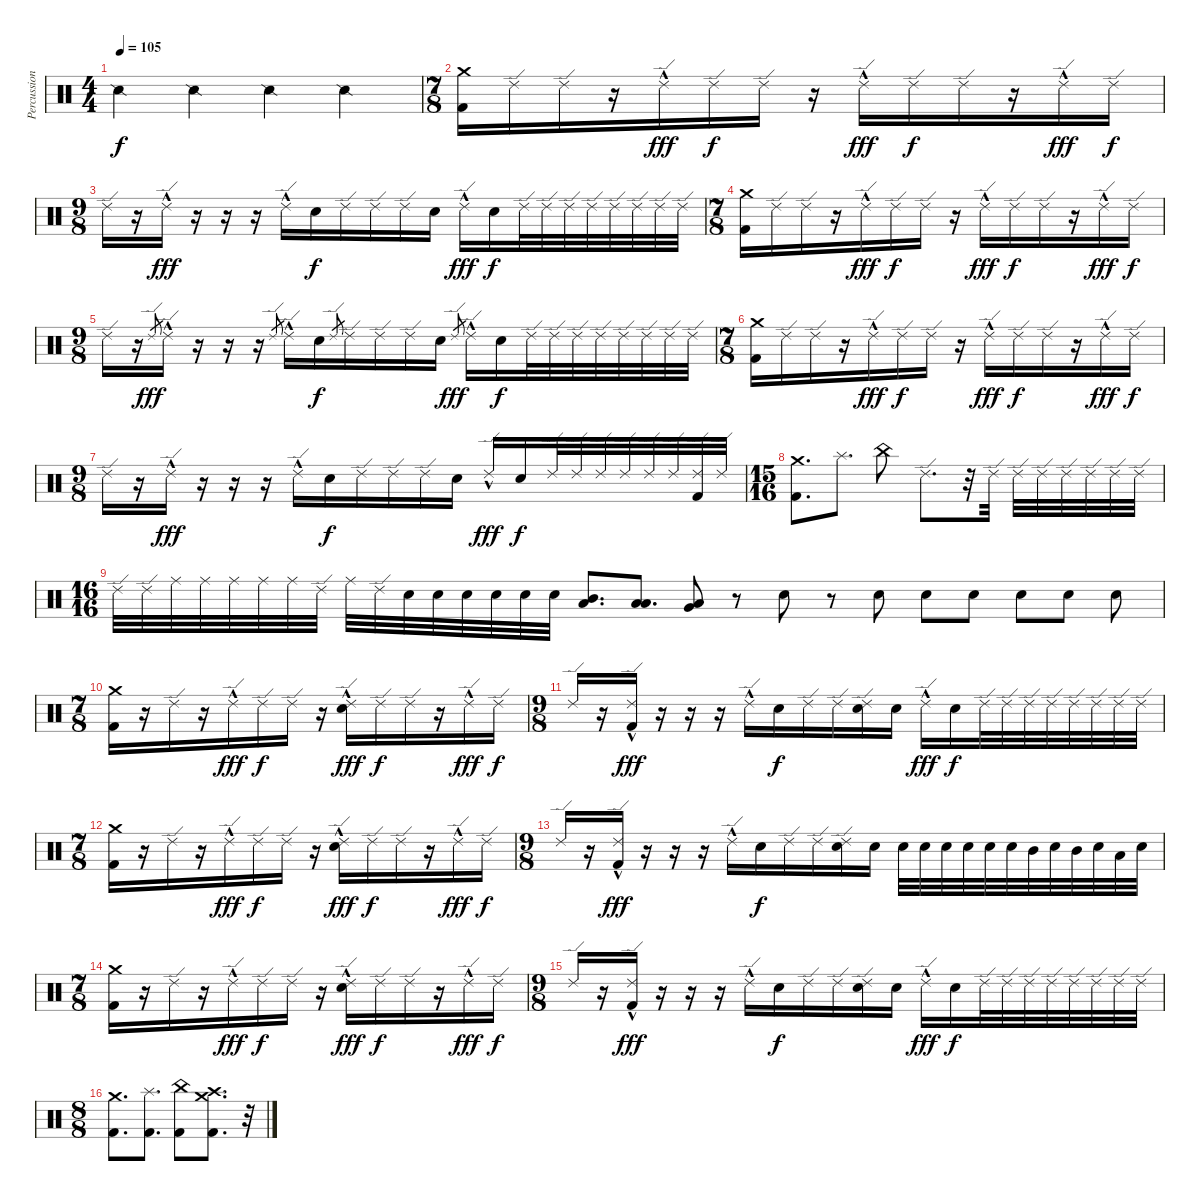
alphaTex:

\track ("Percussion" "Percussion") {instrument percussion}
\staff {score}
\articulation defaults
\ts (4 4)
\tempo 105
\clef neutral
\ks c "Snare (side stick) 2".4{dy f} "Snare (side stick) 2".4 "Snare (side stick) 2".4 "Snare (side stick) 2".4
|
\ts (7 8)
("Kick (hit) 2" "Crash medium (hit)").16 "Ride (edge) 2".16 "Ride (edge) 2".16 r.16 "Ride (edge) 2"{hac}.16{dy fff} "Ride (edge) 2".16{dy f} "Ride (edge) 2".16 r.16 "Ride (edge) 2"{hac}.16{dy fff} "Ride (edge) 2".16{dy f} "Ride (edge) 2".16 r.16 "Ride (edge) 2"{hac}.16{dy fff} "Ride (edge) 2".16{dy f} |
\ts (9 8)
"Ride (edge) 2".16 r.16 "Ride (edge) 2"{hac}.16{dy fff} r.16 r.16 r.16 "Ride (edge) 2"{hac}.16 "Snare (hit)".16{dy f} "Ride (edge) 2".16 "Ride (edge) 2".16 "Ride (edge) 2".16 "Snare (hit)".16 "Ride (edge) 2"{hac}.16{dy fff} "Snare (hit)".16{dy f} "Ride (edge) 2".32 "Ride (edge) 2".32 "Ride (edge) 2".32 "Ride (edge) 2".32 "Ride (edge) 2".32 "Ride (edge) 2".32 "Ride (edge) 2".32 "Ride (edge) 2".32 |
\ts (7 8)
("Kick (hit) 2" "Crash medium (hit)").16 "Ride (edge) 2".16 "Ride (edge) 2".16 r.16 "Ride (edge) 2"{hac}.16{dy fff} "Ride (edge) 2".16{dy f} "Ride (edge) 2".16 r.16 "Ride (edge) 2"{hac}.16{dy fff} "Ride (edge) 2".16{dy f} "Ride (edge) 2".16 r.16 "Ride (edge) 2"{hac}.16{dy fff} "Ride (edge) 2".16{dy f} |
\ts (9 8)
"Ride (edge) 2".16 r.16 "Ride (edge) 2".8{gr dy fff} "Ride (edge) 2"{hac}.16 r.16 r.16 r.16 "Ride (edge) 2".8{gr} "Ride (edge) 2"{hac}.16 "Snare (hit)".16{dy f} "Ride (edge) 2".8{gr} "Ride (edge) 2".16 "Ride (edge) 2".16 "Ride (edge) 2".16 "Snare (hit)".16 "Ride (edge) 2".8{gr dy fff} "Ride (edge) 2"{hac}.16 "Snare (hit)".16{dy f} "Ride (edge) 2".32 "Ride (edge) 2".32 "Ride (edge) 2".32 "Ride (edge) 2".32 "Ride (edge) 2".32 "Ride (edge) 2".32 "Ride (edge) 2".32 "Ride (edge) 2".32 |
\ts (7 8)
("Kick (hit) 2" "Crash medium (hit)").16 "Ride (edge) 2".16 "Ride (edge) 2".16 r.16 "Ride (edge) 2"{hac}.16{dy fff} "Ride (edge) 2".16{dy f} "Ride (edge) 2".16 r.16 "Ride (edge) 2"{hac}.16{dy fff} "Ride (edge) 2".16{dy f} "Ride (edge) 2".16 r.16 "Ride (edge) 2"{hac}.16{dy fff} "Ride (edge) 2".16{dy f} |
\ts (9 8)
"Ride (edge) 2".16 r.16 "Ride (edge) 2"{hac}.16{dy fff} r.16 r.16 r.16 "Ride (edge) 2"{hac}.16 "Snare (hit)".16{dy f} "Ride (edge) 2".16 "Ride (edge) 2".16 "Ride (edge) 2".16 "Snare (hit)".16 "Ride (edge) 2"{hac}.16{dy fff} "Snare (hit)".16{dy f} "Ride (edge) 2".32 "Ride (edge) 2".32 "Ride (edge) 2".32 "Ride (edge) 2".32 "Ride (edge) 2".32 "Ride (edge) 2".32 ("Ride (edge) 2" "Kick (hit) 2").32 "Ride (edge) 2".32 |
\ts (15 16)
("Crash medium (hit)" "Kick (hit) 2").8{d} "Splash (hit)".8{d} "China (hit)".8 "Ride (edge) 2".8{d} r.32 "Ride (edge) 2".32 "Ride (edge) 2".32 "Ride (edge) 2".32 "Ride (edge) 2".32 "Ride (edge) 2".32 "Ride (edge) 2".32 "Ride (edge) 2".32 |
\ts (16 16)
"Ride (edge) 2".32 "Ride (edge) 2".32 "Ride (middle)".32 "Ride (middle)".32 "Ride (middle)".32 "Ride (middle)".32 "Ride (middle)".32 "Ride (edge) 2".32 "Ride (middle)".32 "Ride (edge) 2".32 "Snare (hit)".32 "Snare (hit)".32 "Snare (hit)".32 "Snare (hit)".32 "Snare (hit)".32 "Snare (hit)".32 ("Low Tom (hit)" "Mid Tom (hit)").8{d} ("Low Tom (hit)" "Low Tom (hit)").8{d} ("Low Tom (hit)" "Very Low Tom (hit)").8 r.8 "Snare (hit)".8 r.8 "Snare (hit)".8 "Snare (hit)".8 "Snare (hit)".8 "Snare (hit)".8 "Snare (hit)".8 "Snare (hit)".8 |
\ts (7 8)
("Kick (hit) 2" "Crash medium (hit)").16 r.16 "Ride (edge) 2".16 r.16 "Ride (edge) 2"{hac}.16{dy fff} "Ride (edge) 2".16{dy f} "Ride (edge) 2".16 r.16 ("Ride (edge) 2"{hac} "Electric Snare (hit)").16{dy fff} "Ride (edge) 2".16{dy f} "Ride (edge) 2".16 r.16 "Ride (edge) 2"{hac}.16{dy fff} "Ride (edge) 2".16{dy f} |
\ts (9 8)
"Ride (edge) 2".16 r.16 ("Ride (edge) 2"{hac} "Kick (hit) 2").16{dy fff} r.16 r.16 r.16 "Ride (edge) 2"{hac}.16 "Snare (hit)".16{dy f} "Ride (edge) 2".16 "Ride (edge) 2".16 ("Ride (edge) 2" "Electric Snare (hit)").16 "Snare (hit)".16 "Ride (edge) 2"{hac}.16{dy fff} "Snare (hit)".16{dy f} "Ride (edge) 2".32 "Ride (edge) 2".32 "Ride (edge) 2".32 "Ride (edge) 2".32 "Ride (edge) 2".32 "Ride (edge) 2".32 "Ride (edge) 2".32 "Ride (edge) 2".32 |
\ts (7 8)
("Kick (hit) 2" "Crash medium (hit)").16 r.16 "Ride (edge) 2".16 r.16 "Ride (edge) 2"{hac}.16{dy fff} "Ride (edge) 2".16{dy f} "Ride (edge) 2".16 r.16 ("Ride (edge) 2"{hac} "Electric Snare (hit)").16{dy fff} "Ride (edge) 2".16{dy f} "Ride (edge) 2".16 r.16 "Ride (edge) 2"{hac}.16{dy fff} "Ride (edge) 2".16{dy f} |
\ts (9 8)
"Ride (edge) 2".16 r.16 ("Ride (edge) 2"{hac} "Kick (hit) 2").16{dy fff} r.16 r.16 r.16 "Ride (edge) 2"{hac}.16 "Snare (hit)".16{dy f} "Ride (edge) 2".16 "Ride (edge) 2".16 ("Ride (edge) 2" "Electric Snare (hit)").16 "Snare (hit)".16 "Electric Snare (hit)".32 "Electric Snare (hit)".32 "Electric Snare (hit)".32 "Electric Snare (hit)".32 "Electric Snare (hit)".32 "Snare (hit)".32 "Mid Tom (hit)".32 "Snare (hit)".32 "Mid Tom (hit)".32 "Snare (hit)".32 "Low Tom (hit)".32 "Snare (hit)".32 |
\ts (7 8)
("Kick (hit) 2" "Crash medium (hit)").16 r.16 "Ride (edge) 2".16 r.16 "Ride (edge) 2"{hac}.16{dy fff} "Ride (edge) 2".16{dy f} "Ride (edge) 2".16 r.16 ("Ride (edge) 2"{hac} "Electric Snare (hit)").16{dy fff} "Ride (edge) 2".16{dy f} "Ride (edge) 2".16 r.16 "Ride (edge) 2"{hac}.16{dy fff} "Ride (edge) 2".16{dy f} |
\ts (9 8)
"Ride (edge) 2".16 r.16 ("Ride (edge) 2"{hac} "Kick (hit) 2").16{dy fff} r.16 r.16 r.16 "Ride (edge) 2"{hac}.16 "Snare (hit)".16{dy f} "Ride (edge) 2".16 "Ride (edge) 2".16 ("Ride (edge) 2" "Electric Snare (hit)").16 "Snare (hit)".16 "Ride (edge) 2"{hac}.16{dy fff} "Snare (hit)".16{dy f} "Ride (edge) 2".32 "Ride (edge) 2".32 "Ride (edge) 2".32 "Ride (edge) 2".32 "Ride (edge) 2".32 "Ride (edge) 2".32 "Ride (edge) 2".32 "Ride (edge) 2".32 |
\ts (8 8)
("Crash medium (hit)" "Kick (hit) 2").8{d} ("Splash (hit)" "Kick (hit) 2").8{d} ("China (hit)" "Kick (hit) 2").8 ("Crash medium (hit)" "Kick (hit) 2" "Crash high (hit)").8{d} r.32
